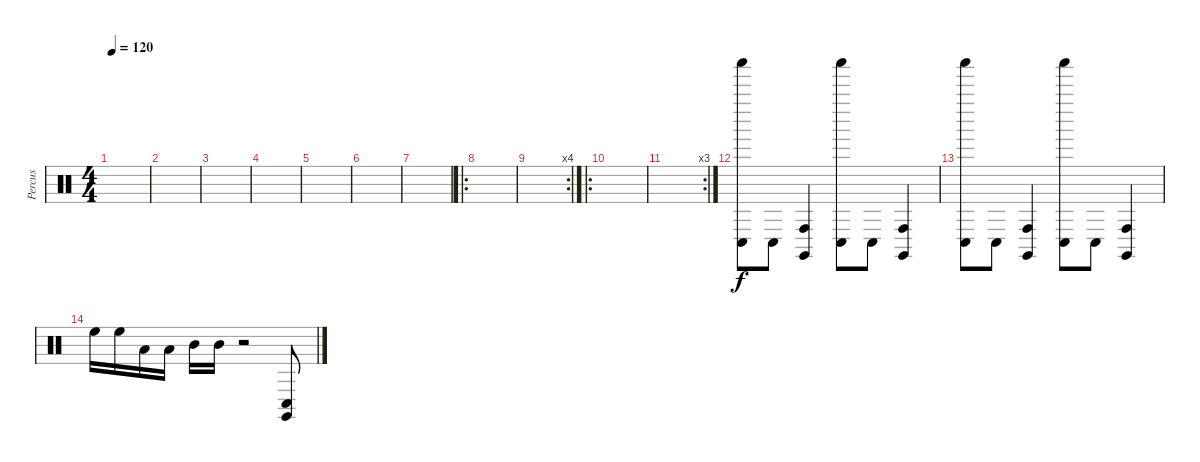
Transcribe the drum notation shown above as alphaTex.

\track ("Percus" "Percus") {instrument percussion}
\staff {score}
\articulation defaults
\ts (4 4)
\tempo 120
\clef neutral
\ks c
|
|
|
|
|
|
|
\ro
|
\rc 4
|
\ro
|
\rc 3
|
("Shaker (hit)" "Conga low (hit)").8{dy f} "Conga low (hit)".8 ("Claves (hit)" "Conga high (hit)").4 ("Shaker (hit)" "Conga low (hit)").8 "Conga low (hit)".8 ("Claves (hit)" "Conga high (hit)").4 |
("Shaker (hit)" "Conga low (hit)").8 "Conga low (hit)".8 ("Claves (hit)" "Conga high (hit)").4 ("Shaker (hit)" "Conga low (hit)").8 "Conga low (hit)".8 ("Claves (hit)" "Conga high (hit)").4 |
"High Floor Tom (hit)".16 "High Floor Tom (hit)".16 "Low Tom (hit)".16 "Low Tom (hit)".16 "Mid Tom (hit)".16 "Mid Tom (hit)".16 r.2 ("Claves (hit)" "Conga low (hit)").8
